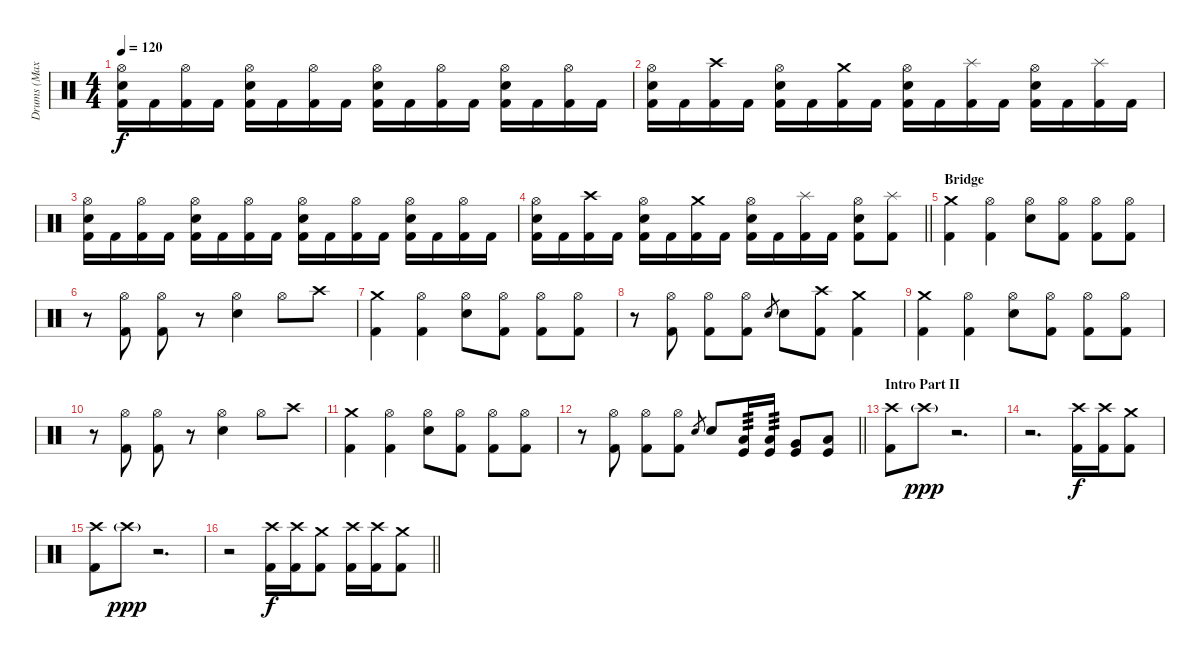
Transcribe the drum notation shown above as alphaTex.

\track ("Drums (Max Duhamel)" "Drums (Max") {instrument percussion}
\staff {score}
\articulation defaults
\ts (4 4)
\tempo 120
\clef neutral
\ks c
("Hi-Hat (open)" "Electric Snare (hit)" "Kick (hit) 2").16{dy f} "Kick (hit) 2".16 ("Hi-Hat (open)" "Kick (hit) 2").16 "Kick (hit) 2".16 ("Hi-Hat (open)" "Electric Snare (hit)" "Kick (hit) 2").16 "Kick (hit) 2".16 ("Hi-Hat (open)" "Kick (hit) 2").16 "Kick (hit) 2".16 ("Hi-Hat (open)" "Electric Snare (hit)" "Kick (hit) 2").16 "Kick (hit) 2".16 ("Hi-Hat (open)" "Kick (hit) 2").16 "Kick (hit) 2".16 ("Hi-Hat (open)" "Electric Snare (hit)" "Kick (hit) 2").16 "Kick (hit) 2".16 ("Hi-Hat (open)" "Kick (hit) 2").16 "Kick (hit) 2".16 |
("Hi-Hat (open)" "Electric Snare (hit)" "Kick (hit) 2").16 "Kick (hit) 2".16 ("Crash high (hit)" "Kick (hit) 2").16 "Kick (hit) 2".16 ("Hi-Hat (open)" "Electric Snare (hit)" "Kick (hit) 2").16 "Kick (hit) 2".16 ("Crash medium (hit)" "Kick (hit) 2").16 "Kick (hit) 2".16 ("Hi-Hat (open)" "Electric Snare (hit)" "Kick (hit) 2").16 "Kick (hit) 2".16 ("Splash (hit)" "Kick (hit) 2").16 "Kick (hit) 2".16 ("Hi-Hat (open)" "Electric Snare (hit)" "Kick (hit) 2").16 "Kick (hit) 2".16 ("Splash (hit)" "Kick (hit) 2").16 "Kick (hit) 2".16 |
("Hi-Hat (open)" "Electric Snare (hit)" "Kick (hit) 2").16 "Kick (hit) 2".16 ("Hi-Hat (open)" "Kick (hit) 2").16 "Kick (hit) 2".16 ("Hi-Hat (open)" "Electric Snare (hit)" "Kick (hit) 2").16 "Kick (hit) 2".16 ("Hi-Hat (open)" "Kick (hit) 2").16 "Kick (hit) 2".16 ("Hi-Hat (open)" "Electric Snare (hit)" "Kick (hit) 2").16 "Kick (hit) 2".16 ("Hi-Hat (open)" "Kick (hit) 2").16 "Kick (hit) 2".16 ("Hi-Hat (open)" "Electric Snare (hit)" "Kick (hit) 2").16 "Kick (hit) 2".16 ("Hi-Hat (open)" "Kick (hit) 2").16 "Kick (hit) 2".16 |
\barLineRight lightlight
("Hi-Hat (open)" "Electric Snare (hit)" "Kick (hit) 2").16 "Kick (hit) 2".16 ("Crash high (hit)" "Kick (hit) 2").16 "Kick (hit) 2".16 ("Hi-Hat (open)" "Electric Snare (hit)" "Kick (hit) 2").16 "Kick (hit) 2".16 ("Crash medium (hit)" "Kick (hit) 2").16 "Kick (hit) 2".16 ("Hi-Hat (open)" "Electric Snare (hit)" "Kick (hit) 2").16 "Kick (hit) 2".16 ("Splash (hit)" "Kick (hit) 2").16 "Kick (hit) 2".16 ("Hi-Hat (open)" "Electric Snare (hit)" "Kick (hit) 2").8 ("Splash (hit)" "Kick (hit) 2").8 |
\section ("" "Bridge")
("Crash medium (hit)" "Kick (hit) 2").4 ("Hi-Hat (open)" "Kick (hit) 2").4 ("Hi-Hat (open)" "Electric Snare (hit)").8 ("Hi-Hat (open)" "Kick (hit) 2").8 ("Hi-Hat (open)" "Kick (hit) 2").8 ("Hi-Hat (open)" "Kick (hit) 2").8 |
r.8 ("Hi-Hat (open)" "Kick (hit) 2").8 ("Hi-Hat (open)" "Kick (hit) 2").8 r.8 ("Hi-Hat (open)" "Electric Snare (hit)").4 "Hi-Hat (open)".8 "Crash high (hit)".8 |
("Crash medium (hit)" "Kick (hit) 2").4 ("Hi-Hat (open)" "Kick (hit) 2").4 ("Hi-Hat (open)" "Electric Snare (hit)").8 ("Hi-Hat (open)" "Kick (hit) 2").8 ("Hi-Hat (open)" "Kick (hit) 2").8 ("Hi-Hat (open)" "Kick (hit) 2").8 |
r.8 ("Hi-Hat (open)" "Kick (hit) 2").8 ("Hi-Hat (open)" "Kick (hit) 2").8 ("Hi-Hat (open)" "Kick (hit) 2").8 "Electric Snare (hit)".8{gr} "Electric Snare (hit)".8 ("Crash high (hit)" "Kick (hit) 2").8 ("Crash medium (hit)" "Kick (hit) 2").4 |
("Crash medium (hit)" "Kick (hit) 2").4 ("Hi-Hat (open)" "Kick (hit) 2").4 ("Hi-Hat (open)" "Electric Snare (hit)").8 ("Hi-Hat (open)" "Kick (hit) 2").8 ("Hi-Hat (open)" "Kick (hit) 2").8 ("Hi-Hat (open)" "Kick (hit) 2").8 |
r.8 ("Hi-Hat (open)" "Kick (hit) 2").8 ("Hi-Hat (open)" "Kick (hit) 2").8 r.8 ("Hi-Hat (open)" "Electric Snare (hit)").4 "Hi-Hat (open)".8 "Crash high (hit)".8 |
("Crash medium (hit)" "Kick (hit) 2").4 ("Hi-Hat (open)" "Kick (hit) 2").4 ("Hi-Hat (open)" "Electric Snare (hit)").8 ("Hi-Hat (open)" "Kick (hit) 2").8 ("Hi-Hat (open)" "Kick (hit) 2").8 ("Hi-Hat (open)" "Kick (hit) 2").8 |
\barLineRight lightlight
r.8 ("Hi-Hat (open)" "Kick (hit) 2").8 ("Hi-Hat (open)" "Kick (hit) 2").8 ("Hi-Hat (open)" "Kick (hit) 2").8 "Electric Snare (hit)".8{gr} "Electric Snare (hit)".8 ("Low Tom (hit)" "Kick (hit)").16{tp 3} ("Low Tom (hit)" "Kick (hit)").16{tp 3} ("Very Low Tom (hit)" "Kick (hit)").8 ("Low Tom (hit)" "Kick (hit)").8 |
\section ("" "Intro Part II")
("Crash high (hit)" "Kick (hit) 2").8 "Crash high (hit)"{g}.8{dy ppp} r.2{d} |
r.2{d} ("Crash high (hit)" "Kick (hit) 2").16{dy f} ("Crash high (hit)" "Kick (hit) 2").16 ("Crash medium (hit)" "Kick (hit) 2").8 |
("Crash high (hit)" "Kick (hit) 2").8 "Crash high (hit)"{g}.8{dy ppp} r.2{d} |
\barLineRight lightlight
r.2 ("Crash high (hit)" "Kick (hit) 2").16{dy f} ("Crash high (hit)" "Kick (hit) 2").16 ("Crash medium (hit)" "Kick (hit) 2").8 ("Crash high (hit)" "Kick (hit) 2").16 ("Crash high (hit)" "Kick (hit) 2").16 ("Crash medium (hit)" "Kick (hit) 2").8
